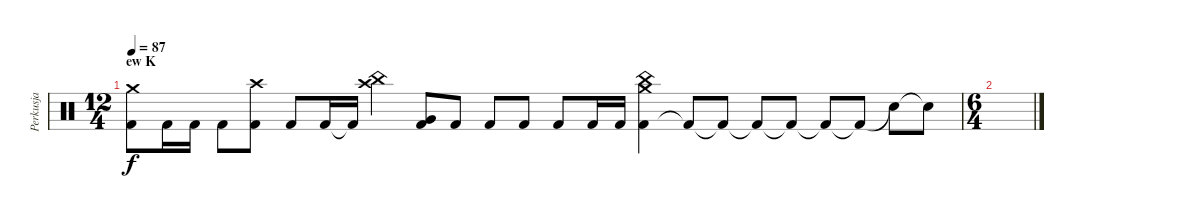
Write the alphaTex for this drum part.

\track ("Perkusja" "Perkusja") {instrument percussion}
\staff {score}
\articulation defaults
\ts (12 4)
\section ("" "ew K")
\tempo 87
\clef neutral
\ks c
("Kick (hit) 2" "Crash medium (hit)").8{dy f} "Kick (hit) 2".16 "Kick (hit) 2".16 "Kick (hit) 2".8 ("Kick (hit) 2" "Crash high (hit)").8 "Kick (hit) 2".8 "Kick (hit) 2".16 "Kick (hit) 2"{t}.16 ("Crash high (hit)" "China (hit)").4 ("Kick (hit) 2" "Very Low Tom (hit)").8 "Kick (hit) 2".8 "Kick (hit) 2".8 "Kick (hit) 2".8 "Kick (hit) 2".8 "Kick (hit) 2".16 "Kick (hit) 2".16 ("Kick (hit) 2" "Crash medium (hit)" "China (hit)").4 "Kick (hit) 2"{t}.8 "Kick (hit) 2"{t}.8 "Kick (hit) 2"{t}.8 "Kick (hit) 2"{t}.8 "Kick (hit) 2"{t}.8{volume 0} "Kick (hit) 2"{t}.8 "Snare (hit)"{t}.8 "Snare (hit)"{t}.8 |
\ts (6 4)
